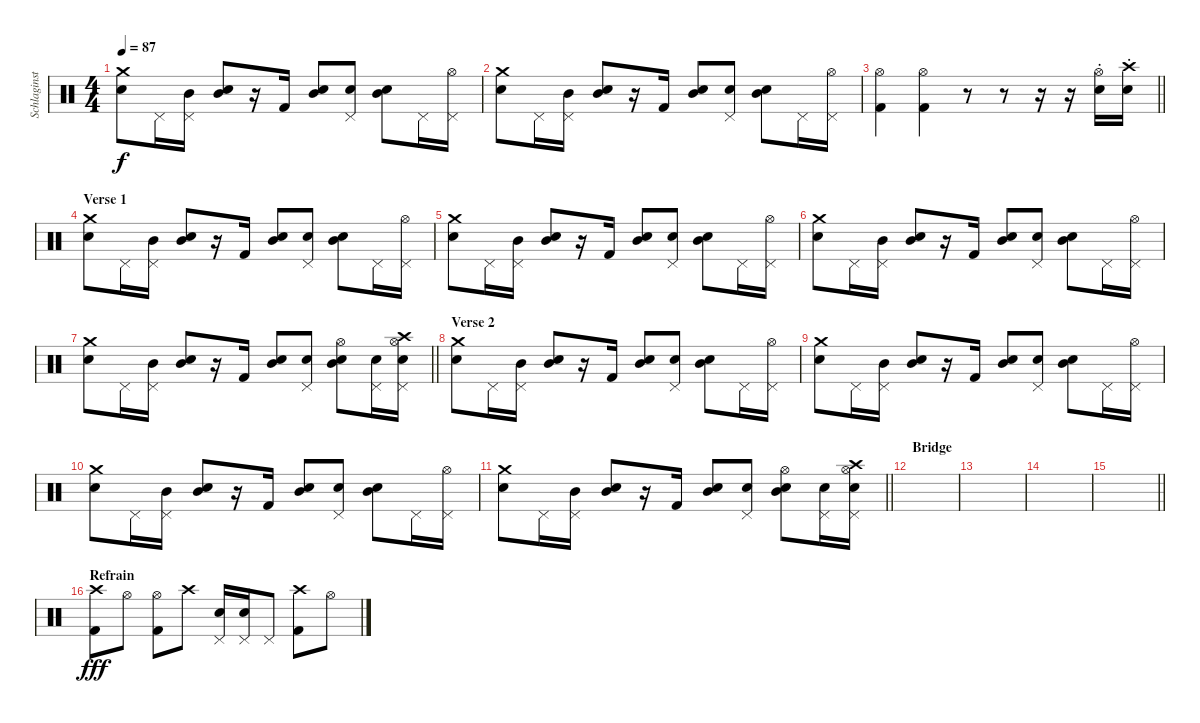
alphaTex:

\track ("Schlaginstrumente -  Auswahl" "Schlaginst") {instrument percussion}
\staff {score}
\articulation defaults
\ts (4 4)
\tempo 87
\clef neutral
\ks c
("Crash medium (hit)" "Snare (hit) 2").8{dy f} "Pedal Hi-Hat (hit)".16 ("Mid Tom (hit)" "Pedal Hi-Hat (hit)").16 ("Mid Tom (hit)" "Snare (hit) 2").8 r.16 "Kick (hit) 2".16 ("Mid Tom (hit)" "Snare (hit) 2").8 ("Snare (hit) 2" "Pedal Hi-Hat (hit)").8 ("Mid Tom (hit)" "Snare (hit) 2").8 "Pedal Hi-Hat (hit)".16 ("Hi-Hat (open)" "Pedal Hi-Hat (hit)").16 |
("Crash medium (hit)" "Snare (hit) 2").8 "Pedal Hi-Hat (hit)".16 ("Mid Tom (hit)" "Pedal Hi-Hat (hit)").16 ("Mid Tom (hit)" "Snare (hit) 2").8 r.16 "Kick (hit) 2".16 ("Mid Tom (hit)" "Snare (hit) 2").8 ("Snare (hit) 2" "Pedal Hi-Hat (hit)").8 ("Mid Tom (hit)" "Snare (hit) 2").8 "Pedal Hi-Hat (hit)".16 ("Hi-Hat (open)" "Pedal Hi-Hat (hit)").16 |
\barLineRight lightlight
("Hi-Hat (open)" "Kick (hit) 2").4 ("Hi-Hat (open)" "Kick (hit) 2").4 r.8 r.8 r.16 r.16 ("Snare (hit) 2"{st} "Hi-Hat (open)").16 ("Snare (hit) 2"{st} "Crash high (hit)").16 |
\section ("" "Verse 1")
("Crash medium (hit)" "Snare (hit) 2").8 "Pedal Hi-Hat (hit)".16 ("Mid Tom (hit)" "Pedal Hi-Hat (hit)").16 ("Mid Tom (hit)" "Snare (hit) 2").8 r.16 "Kick (hit) 2".16 ("Mid Tom (hit)" "Snare (hit) 2").8 ("Snare (hit) 2" "Pedal Hi-Hat (hit)").8 ("Mid Tom (hit)" "Snare (hit) 2").8 "Pedal Hi-Hat (hit)".16 ("Hi-Hat (open)" "Pedal Hi-Hat (hit)").16 |
("Crash medium (hit)" "Snare (hit) 2").8 "Pedal Hi-Hat (hit)".16 ("Mid Tom (hit)" "Pedal Hi-Hat (hit)").16 ("Mid Tom (hit)" "Snare (hit) 2").8 r.16 "Kick (hit) 2".16 ("Mid Tom (hit)" "Snare (hit) 2").8 ("Snare (hit) 2" "Pedal Hi-Hat (hit)").8 ("Mid Tom (hit)" "Snare (hit) 2").8 "Pedal Hi-Hat (hit)".16 ("Hi-Hat (open)" "Pedal Hi-Hat (hit)").16 |
("Crash medium (hit)" "Snare (hit) 2").8 "Pedal Hi-Hat (hit)".16 ("Mid Tom (hit)" "Pedal Hi-Hat (hit)").16 ("Mid Tom (hit)" "Snare (hit) 2").8 r.16 "Kick (hit) 2".16 ("Mid Tom (hit)" "Snare (hit) 2").8 ("Snare (hit) 2" "Pedal Hi-Hat (hit)").8 ("Mid Tom (hit)" "Snare (hit) 2").8 "Pedal Hi-Hat (hit)".16 ("Hi-Hat (open)" "Pedal Hi-Hat (hit)").16 |
\barLineRight lightlight
("Crash medium (hit)" "Snare (hit) 2").8 "Pedal Hi-Hat (hit)".16 ("Mid Tom (hit)" "Pedal Hi-Hat (hit)").16 ("Mid Tom (hit)" "Snare (hit) 2").8 r.16 "Kick (hit) 2".16 ("Mid Tom (hit)" "Snare (hit) 2").8 ("Snare (hit) 2" "Pedal Hi-Hat (hit)").8 ("Mid Tom (hit)" "Hi-Hat (open)" "Snare (hit) 2").8 ("Snare (hit) 2" "Pedal Hi-Hat (hit)").16 ("Hi-Hat (open)" "Crash high (hit)" "Snare (hit) 2" "Pedal Hi-Hat (hit)").16 |
\section ("" "Verse 2")
("Crash medium (hit)" "Snare (hit) 2").8 "Pedal Hi-Hat (hit)".16 ("Mid Tom (hit)" "Pedal Hi-Hat (hit)").16 ("Mid Tom (hit)" "Snare (hit) 2").8 r.16 "Kick (hit) 2".16 ("Mid Tom (hit)" "Snare (hit) 2").8 ("Snare (hit) 2" "Pedal Hi-Hat (hit)").8 ("Mid Tom (hit)" "Snare (hit) 2").8 "Pedal Hi-Hat (hit)".16 ("Hi-Hat (open)" "Pedal Hi-Hat (hit)").16 |
("Crash medium (hit)" "Snare (hit) 2").8 "Pedal Hi-Hat (hit)".16 ("Mid Tom (hit)" "Pedal Hi-Hat (hit)").16 ("Mid Tom (hit)" "Snare (hit) 2").8 r.16 "Kick (hit) 2".16 ("Mid Tom (hit)" "Snare (hit) 2").8 ("Snare (hit) 2" "Pedal Hi-Hat (hit)").8 ("Mid Tom (hit)" "Snare (hit) 2").8 "Pedal Hi-Hat (hit)".16 ("Hi-Hat (open)" "Pedal Hi-Hat (hit)").16 |
("Crash medium (hit)" "Snare (hit) 2").8 "Pedal Hi-Hat (hit)".16 ("Mid Tom (hit)" "Pedal Hi-Hat (hit)").16 ("Mid Tom (hit)" "Snare (hit) 2").8 r.16 "Kick (hit) 2".16 ("Mid Tom (hit)" "Snare (hit) 2").8 ("Snare (hit) 2" "Pedal Hi-Hat (hit)").8 ("Mid Tom (hit)" "Snare (hit) 2").8 "Pedal Hi-Hat (hit)".16 ("Hi-Hat (open)" "Pedal Hi-Hat (hit)").16 |
\barLineRight lightlight
("Crash medium (hit)" "Snare (hit) 2").8 "Pedal Hi-Hat (hit)".16 ("Mid Tom (hit)" "Pedal Hi-Hat (hit)").16 ("Mid Tom (hit)" "Snare (hit) 2").8 r.16 "Kick (hit) 2".16 ("Mid Tom (hit)" "Snare (hit) 2").8 ("Snare (hit) 2" "Pedal Hi-Hat (hit)").8 ("Mid Tom (hit)" "Hi-Hat (open)" "Snare (hit) 2").8 ("Snare (hit) 2" "Pedal Hi-Hat (hit)").16 ("Hi-Hat (open)" "Crash high (hit)" "Snare (hit) 2" "Pedal Hi-Hat (hit)").16 |
\section ("" "Bridge")
|
|
|
\barLineRight lightlight
|
\section ("" "Refrain")
("Crash high (hit)" "Kick (hit) 2").8{dy fff} "Hi-Hat (open)".8 ("Hi-Hat (open)" "Kick (hit) 2").8 "Crash high (hit)".8 ("Pedal Hi-Hat (hit)" "Snare (hit) 2").16 ("Pedal Hi-Hat (hit)" "Snare (hit) 2").16 "Pedal Hi-Hat (hit)".8 ("Crash high (hit)" "Kick (hit) 2").8 "Hi-Hat (open)".8
